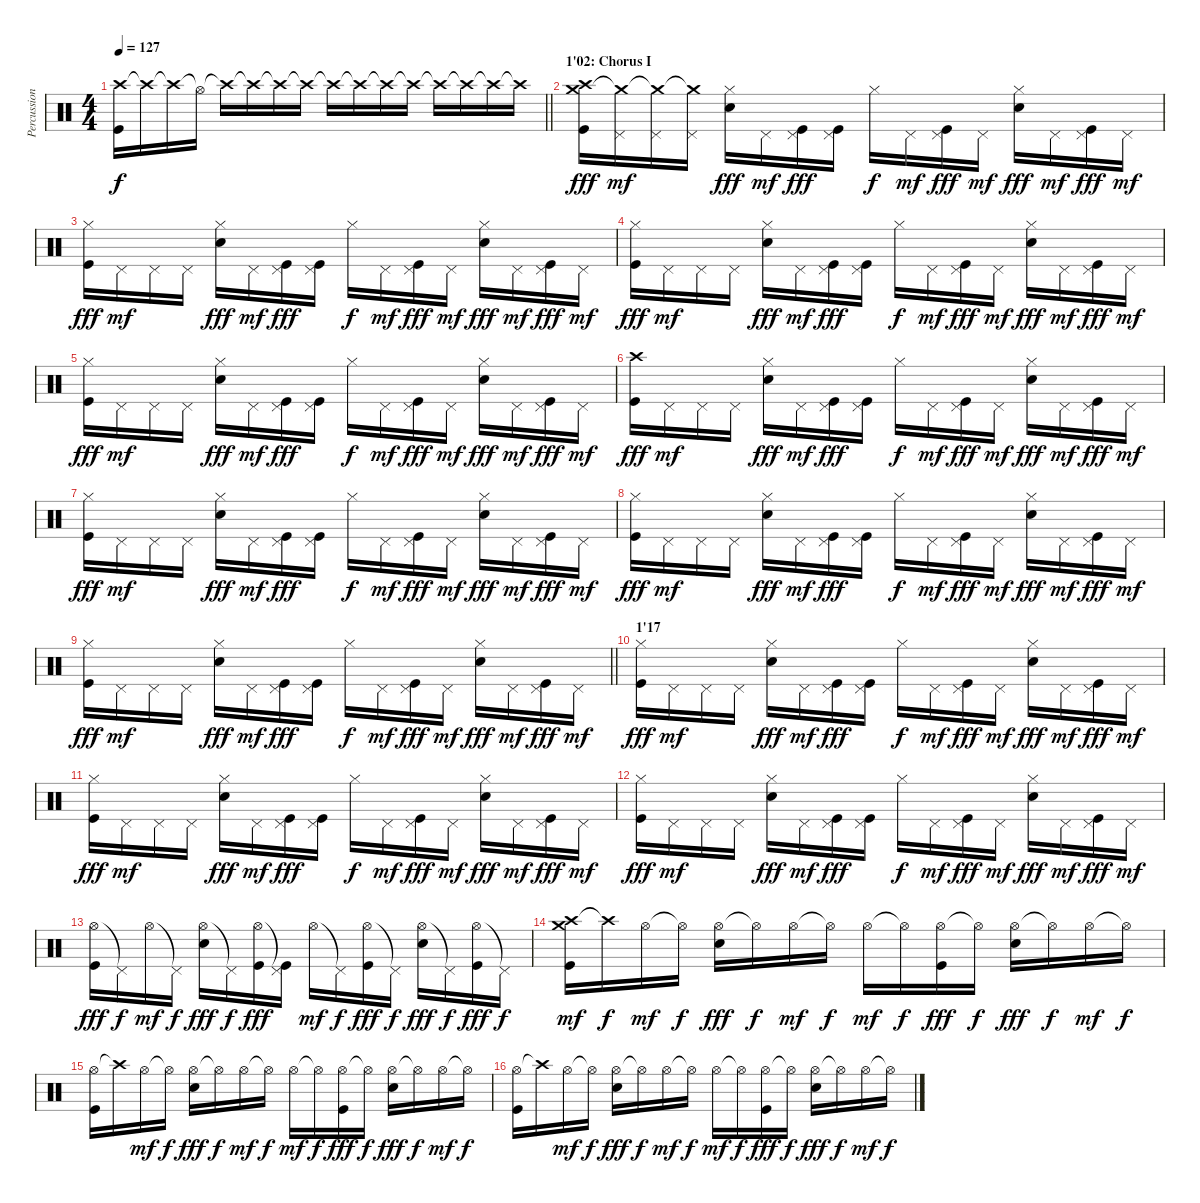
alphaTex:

\track ("Percussions" "Percussion") {instrument percussion}
\staff {score}
\articulation defaults
\ts (4 4)
\tempo 127
\clef neutral
\barLineRight lightlight
\ks c
("Crash high (hit)" "Kick (hit)").16{dy f} "Crash high (hit)"{t}.16 "Crash high (hit)"{t}.16 "Hi-Hat (open)"{t}.16 "Crash high (hit)"{t}.16 "Crash high (hit)"{t}.16 "Crash high (hit)"{t}.16 "Crash high (hit)"{t}.16 "Crash high (hit)"{t}.16 "Crash high (hit)"{t}.16 "Crash high (hit)"{t}.16 "Crash high (hit)"{t}.16 "Crash high (hit)"{t}.16 "Crash high (hit)"{t}.16 "Crash high (hit)"{t}.16 "Crash high (hit)"{t}.16 |
\section ("" "1'02: Chorus I")
("Crash high (hit)" "Crash medium (hit)" "Kick (hit)").16{dy fff} ("Pedal Hi-Hat (hit)" "Crash medium (hit)"{t}).16{dy mf} ("Pedal Hi-Hat (hit)" "Crash medium (hit)"{t}).16 ("Pedal Hi-Hat (hit)" "Crash medium (hit)"{t}).16 ("Hi-Hat (closed)" "Electric Snare (hit)").16{dy fff} "Pedal Hi-Hat (hit)".16{dy mf} ("Pedal Hi-Hat (hit)" "Kick (hit)").16{dy fff} ("Pedal Hi-Hat (hit)" "Kick (hit)").16 "Hi-Hat (closed)".16{dy f} "Pedal Hi-Hat (hit)".16{dy mf} ("Pedal Hi-Hat (hit)" "Kick (hit)").16{dy fff} "Pedal Hi-Hat (hit)".16{dy mf} ("Hi-Hat (closed)" "Electric Snare (hit)").16{dy fff} "Pedal Hi-Hat (hit)".16{dy mf} ("Pedal Hi-Hat (hit)" "Kick (hit)").16{dy fff} "Pedal Hi-Hat (hit)".16{dy mf} |
("Hi-Hat (closed)" "Kick (hit)").16{dy fff} "Pedal Hi-Hat (hit)".16{dy mf} "Pedal Hi-Hat (hit)".16 "Pedal Hi-Hat (hit)".16 ("Hi-Hat (closed)" "Electric Snare (hit)").16{dy fff} "Pedal Hi-Hat (hit)".16{dy mf} ("Pedal Hi-Hat (hit)" "Kick (hit)").16{dy fff} ("Pedal Hi-Hat (hit)" "Kick (hit)").16 "Hi-Hat (closed)".16{dy f} "Pedal Hi-Hat (hit)".16{dy mf} ("Pedal Hi-Hat (hit)" "Kick (hit)").16{dy fff} "Pedal Hi-Hat (hit)".16{dy mf} ("Hi-Hat (closed)" "Electric Snare (hit)").16{dy fff} "Pedal Hi-Hat (hit)".16{dy mf} ("Pedal Hi-Hat (hit)" "Kick (hit)").16{dy fff} "Pedal Hi-Hat (hit)".16{dy mf} |
("Hi-Hat (closed)" "Kick (hit)").16{dy fff} "Pedal Hi-Hat (hit)".16{dy mf} "Pedal Hi-Hat (hit)".16 "Pedal Hi-Hat (hit)".16 ("Hi-Hat (closed)" "Electric Snare (hit)").16{dy fff} "Pedal Hi-Hat (hit)".16{dy mf} ("Pedal Hi-Hat (hit)" "Kick (hit)").16{dy fff} ("Pedal Hi-Hat (hit)" "Kick (hit)").16 "Hi-Hat (closed)".16{dy f} "Pedal Hi-Hat (hit)".16{dy mf} ("Pedal Hi-Hat (hit)" "Kick (hit)").16{dy fff} "Pedal Hi-Hat (hit)".16{dy mf} ("Hi-Hat (closed)" "Electric Snare (hit)").16{dy fff} "Pedal Hi-Hat (hit)".16{dy mf} ("Pedal Hi-Hat (hit)" "Kick (hit)").16{dy fff} "Pedal Hi-Hat (hit)".16{dy mf} |
("Hi-Hat (closed)" "Kick (hit)").16{dy fff} "Pedal Hi-Hat (hit)".16{dy mf} "Pedal Hi-Hat (hit)".16 "Pedal Hi-Hat (hit)".16 ("Hi-Hat (closed)" "Electric Snare (hit)").16{dy fff} "Pedal Hi-Hat (hit)".16{dy mf} ("Pedal Hi-Hat (hit)" "Kick (hit)").16{dy fff} ("Pedal Hi-Hat (hit)" "Kick (hit)").16 "Hi-Hat (closed)".16{dy f} "Pedal Hi-Hat (hit)".16{dy mf} ("Pedal Hi-Hat (hit)" "Kick (hit)").16{dy fff} "Pedal Hi-Hat (hit)".16{dy mf} ("Hi-Hat (closed)" "Electric Snare (hit)").16{dy fff} "Pedal Hi-Hat (hit)".16{dy mf} ("Pedal Hi-Hat (hit)" "Kick (hit)").16{dy fff} "Pedal Hi-Hat (hit)".16{dy mf} |
("Crash high (hit)" "Kick (hit)").16{dy fff} "Pedal Hi-Hat (hit)".16{dy mf} "Pedal Hi-Hat (hit)".16 "Pedal Hi-Hat (hit)".16 ("Hi-Hat (closed)" "Electric Snare (hit)").16{dy fff} "Pedal Hi-Hat (hit)".16{dy mf} ("Pedal Hi-Hat (hit)" "Kick (hit)").16{dy fff} ("Pedal Hi-Hat (hit)" "Kick (hit)").16 "Hi-Hat (closed)".16{dy f} "Pedal Hi-Hat (hit)".16{dy mf} ("Pedal Hi-Hat (hit)" "Kick (hit)").16{dy fff} "Pedal Hi-Hat (hit)".16{dy mf} ("Hi-Hat (closed)" "Electric Snare (hit)").16{dy fff} "Pedal Hi-Hat (hit)".16{dy mf} ("Pedal Hi-Hat (hit)" "Kick (hit)").16{dy fff} "Pedal Hi-Hat (hit)".16{dy mf} |
("Hi-Hat (closed)" "Kick (hit)").16{dy fff} "Pedal Hi-Hat (hit)".16{dy mf} "Pedal Hi-Hat (hit)".16 "Pedal Hi-Hat (hit)".16 ("Hi-Hat (closed)" "Electric Snare (hit)").16{dy fff} "Pedal Hi-Hat (hit)".16{dy mf} ("Pedal Hi-Hat (hit)" "Kick (hit)").16{dy fff} ("Pedal Hi-Hat (hit)" "Kick (hit)").16 "Hi-Hat (closed)".16{dy f} "Pedal Hi-Hat (hit)".16{dy mf} ("Pedal Hi-Hat (hit)" "Kick (hit)").16{dy fff} "Pedal Hi-Hat (hit)".16{dy mf} ("Hi-Hat (closed)" "Electric Snare (hit)").16{dy fff} "Pedal Hi-Hat (hit)".16{dy mf} ("Pedal Hi-Hat (hit)" "Kick (hit)").16{dy fff} "Pedal Hi-Hat (hit)".16{dy mf} |
("Hi-Hat (closed)" "Kick (hit)").16{dy fff} "Pedal Hi-Hat (hit)".16{dy mf} "Pedal Hi-Hat (hit)".16 "Pedal Hi-Hat (hit)".16 ("Hi-Hat (closed)" "Electric Snare (hit)").16{dy fff} "Pedal Hi-Hat (hit)".16{dy mf} ("Pedal Hi-Hat (hit)" "Kick (hit)").16{dy fff} ("Pedal Hi-Hat (hit)" "Kick (hit)").16 "Hi-Hat (closed)".16{dy f} "Pedal Hi-Hat (hit)".16{dy mf} ("Pedal Hi-Hat (hit)" "Kick (hit)").16{dy fff} "Pedal Hi-Hat (hit)".16{dy mf} ("Hi-Hat (closed)" "Electric Snare (hit)").16{dy fff} "Pedal Hi-Hat (hit)".16{dy mf} ("Pedal Hi-Hat (hit)" "Kick (hit)").16{dy fff} "Pedal Hi-Hat (hit)".16{dy mf} |
\barLineRight lightlight
("Hi-Hat (closed)" "Kick (hit)").16{dy fff} "Pedal Hi-Hat (hit)".16{dy mf} "Pedal Hi-Hat (hit)".16 "Pedal Hi-Hat (hit)".16 ("Hi-Hat (closed)" "Electric Snare (hit)").16{dy fff} "Pedal Hi-Hat (hit)".16{dy mf} ("Pedal Hi-Hat (hit)" "Kick (hit)").16{dy fff} ("Pedal Hi-Hat (hit)" "Kick (hit)").16 "Hi-Hat (closed)".16{dy f} "Pedal Hi-Hat (hit)".16{dy mf} ("Pedal Hi-Hat (hit)" "Kick (hit)").16{dy fff} "Pedal Hi-Hat (hit)".16{dy mf} ("Hi-Hat (closed)" "Electric Snare (hit)").16{dy fff} "Pedal Hi-Hat (hit)".16{dy mf} ("Pedal Hi-Hat (hit)" "Kick (hit)").16{dy fff} "Pedal Hi-Hat (hit)".16{dy mf} |
\section ("" "1'17")
("Hi-Hat (closed)" "Kick (hit)").16{dy fff} "Pedal Hi-Hat (hit)".16{dy mf} "Pedal Hi-Hat (hit)".16 "Pedal Hi-Hat (hit)".16 ("Hi-Hat (closed)" "Electric Snare (hit)").16{dy fff} "Pedal Hi-Hat (hit)".16{dy mf} ("Pedal Hi-Hat (hit)" "Kick (hit)").16{dy fff} ("Pedal Hi-Hat (hit)" "Kick (hit)").16 "Hi-Hat (closed)".16{dy f} "Pedal Hi-Hat (hit)".16{dy mf} ("Pedal Hi-Hat (hit)" "Kick (hit)").16{dy fff} "Pedal Hi-Hat (hit)".16{dy mf} ("Hi-Hat (closed)" "Electric Snare (hit)").16{dy fff} "Pedal Hi-Hat (hit)".16{dy mf} ("Pedal Hi-Hat (hit)" "Kick (hit)").16{dy fff} "Pedal Hi-Hat (hit)".16{dy mf} |
("Hi-Hat (closed)" "Kick (hit)").16{dy fff} "Pedal Hi-Hat (hit)".16{dy mf} "Pedal Hi-Hat (hit)".16 "Pedal Hi-Hat (hit)".16 ("Hi-Hat (closed)" "Electric Snare (hit)").16{dy fff} "Pedal Hi-Hat (hit)".16{dy mf} ("Pedal Hi-Hat (hit)" "Kick (hit)").16{dy fff} ("Pedal Hi-Hat (hit)" "Kick (hit)").16 "Hi-Hat (closed)".16{dy f} "Pedal Hi-Hat (hit)".16{dy mf} ("Pedal Hi-Hat (hit)" "Kick (hit)").16{dy fff} "Pedal Hi-Hat (hit)".16{dy mf} ("Hi-Hat (closed)" "Electric Snare (hit)").16{dy fff} "Pedal Hi-Hat (hit)".16{dy mf} ("Pedal Hi-Hat (hit)" "Kick (hit)").16{dy fff} "Pedal Hi-Hat (hit)".16{dy mf} |
("Hi-Hat (closed)" "Kick (hit)").16{dy fff} "Pedal Hi-Hat (hit)".16{dy mf} "Pedal Hi-Hat (hit)".16 "Pedal Hi-Hat (hit)".16 ("Hi-Hat (closed)" "Electric Snare (hit)").16{dy fff} "Pedal Hi-Hat (hit)".16{dy mf} ("Pedal Hi-Hat (hit)" "Kick (hit)").16{dy fff} ("Pedal Hi-Hat (hit)" "Kick (hit)").16 "Hi-Hat (closed)".16{dy f} "Pedal Hi-Hat (hit)".16{dy mf} ("Pedal Hi-Hat (hit)" "Kick (hit)").16{dy fff} "Pedal Hi-Hat (hit)".16{dy mf} ("Hi-Hat (closed)" "Electric Snare (hit)").16{dy fff} "Pedal Hi-Hat (hit)".16{dy mf} ("Pedal Hi-Hat (hit)" "Kick (hit)").16{dy fff} "Pedal Hi-Hat (hit)".16{dy mf} |
("Hi-Hat (open)" "Kick (hit)").16{dy fff} "Pedal Hi-Hat (hit)"{t}.16{dy f} "Hi-Hat (open)".16{dy mf} "Pedal Hi-Hat (hit)"{t}.16{dy f} ("Hi-Hat (open)" "Electric Snare (hit)").16{dy fff} "Pedal Hi-Hat (hit)"{t}.16{dy f} ("Hi-Hat (open)" "Kick (hit)").16{dy fff} ("Pedal Hi-Hat (hit)"{t} "Kick (hit)").16 "Hi-Hat (open)".16{dy mf} "Pedal Hi-Hat (hit)"{t}.16{dy f} ("Hi-Hat (open)" "Kick (hit)").16{dy fff} "Pedal Hi-Hat (hit)"{t}.16{dy f} ("Hi-Hat (open)" "Electric Snare (hit)").16{dy fff} "Pedal Hi-Hat (hit)"{t}.16{dy f} ("Hi-Hat (open)" "Kick (hit)").16{dy fff} "Pedal Hi-Hat (hit)"{t}.16{dy f} |
("Crash high (hit)" "Crash medium (hit)" "Kick (hit)").16{dy mf} "Crash high (hit)"{t}.16{dy f} "Hi-Hat (open)".16{dy mf} "Hi-Hat (open)"{t}.16{dy f} ("Hi-Hat (open)" "Electric Snare (hit)").16{dy fff} "Hi-Hat (open)"{t}.16{dy f} "Hi-Hat (open)".16{dy mf} "Hi-Hat (open)"{t}.16{dy f} "Hi-Hat (open)".16{dy mf} "Hi-Hat (open)"{t}.16{dy f} ("Hi-Hat (open)" "Kick (hit)").16{dy fff} "Hi-Hat (open)"{t}.16{dy f} ("Hi-Hat (open)" "Electric Snare (hit)").16{dy fff} "Hi-Hat (open)"{t}.16{dy f} "Hi-Hat (open)".16{dy mf} "Hi-Hat (open)"{t}.16{dy f} |
("Hi-Hat (open)" "Kick (hit)").16 "Crash high (hit)"{t}.16 "Hi-Hat (open)".16{dy mf} "Hi-Hat (open)"{t}.16{dy f} ("Hi-Hat (open)" "Electric Snare (hit)").16{dy fff} "Hi-Hat (open)"{t}.16{dy f} "Hi-Hat (open)".16{dy mf} "Hi-Hat (open)"{t}.16{dy f} "Hi-Hat (open)".16{dy mf} "Hi-Hat (open)"{t}.16{dy f} ("Hi-Hat (open)" "Kick (hit)").16{dy fff} "Hi-Hat (open)"{t}.16{dy f} ("Hi-Hat (open)" "Electric Snare (hit)").16{dy fff} "Hi-Hat (open)"{t}.16{dy f} "Hi-Hat (open)".16{dy mf} "Hi-Hat (open)"{t}.16{dy f} |
("Hi-Hat (open)" "Kick (hit)").16 "Crash high (hit)"{t}.16 "Hi-Hat (open)".16{dy mf} "Hi-Hat (open)"{t}.16{dy f} ("Hi-Hat (open)" "Electric Snare (hit)").16{dy fff} "Hi-Hat (open)"{t}.16{dy f} "Hi-Hat (open)".16{dy mf} "Hi-Hat (open)"{t}.16{dy f} "Hi-Hat (open)".16{dy mf} "Hi-Hat (open)"{t}.16{dy f} ("Hi-Hat (open)" "Kick (hit)").16{dy fff} "Hi-Hat (open)"{t}.16{dy f} ("Hi-Hat (open)" "Electric Snare (hit)").16{dy fff} "Hi-Hat (open)"{t}.16{dy f} "Hi-Hat (open)".16{dy mf} "Hi-Hat (open)"{t}.16{dy f}
